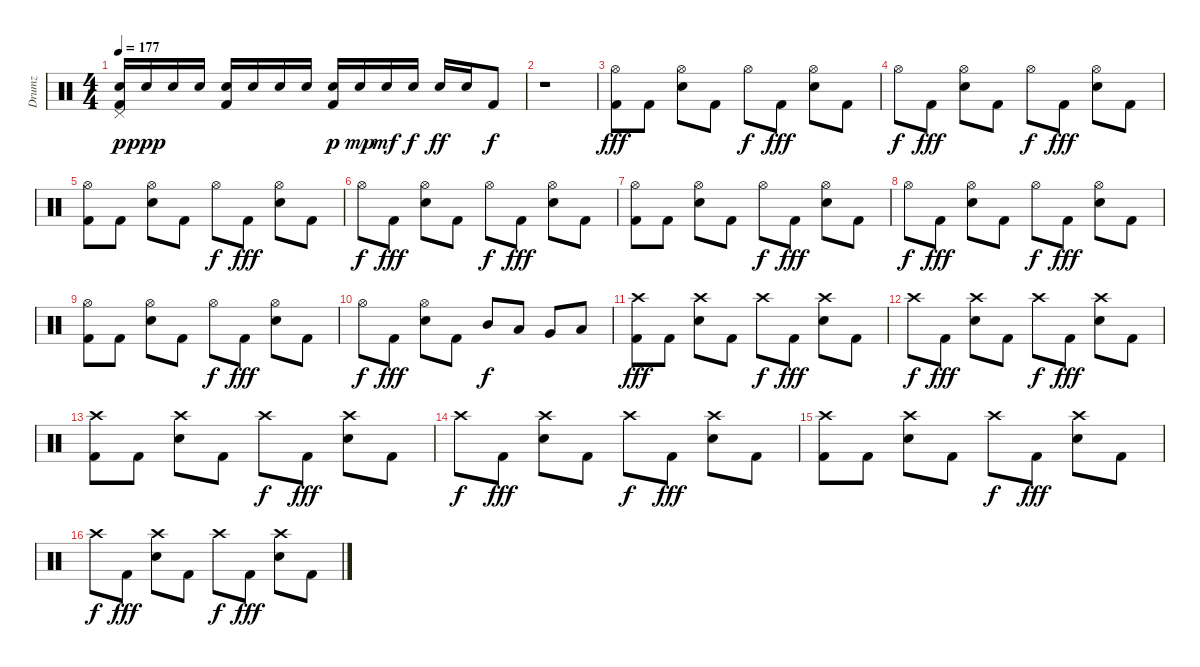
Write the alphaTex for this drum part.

\track ("Drumz" "Drumz") {instrument percussion}
\staff {score}
\articulation defaults
\ts (4 4)
\tempo 177
\clef neutral
\ks c
("Snare (hit) 2" "Pedal Hi-Hat (hit)" "Kick (hit) 2").16{dy p} "Snare (hit) 2".16{dy ppp} "Snare (hit) 2".16 "Snare (hit) 2".16 ("Snare (hit) 2" "Kick (hit) 2").16 "Snare (hit) 2".16 "Snare (hit) 2".16 "Snare (hit) 2".16 ("Snare (hit) 2" "Kick (hit) 2").16{dy p} "Snare (hit) 2".16{dy mp} "Snare (hit) 2".16{dy mf} "Snare (hit) 2".16{dy f} "Snare (hit) 2".16{dy ff} "Snare (hit) 2".16 "Kick (hit) 2".8{dy f} |
r.1 |
("Hi-Hat (open)" "Kick (hit) 2").8{dy fff} "Kick (hit) 2".8 ("Hi-Hat (open)" "Snare (hit) 2").8 "Kick (hit) 2".8 "Hi-Hat (open)".8{dy f} "Kick (hit) 2".8{dy fff} ("Hi-Hat (open)" "Snare (hit) 2").8 "Kick (hit) 2".8 |
"Hi-Hat (open)".8{dy f} "Kick (hit) 2".8{dy fff} ("Hi-Hat (open)" "Snare (hit) 2").8 "Kick (hit) 2".8 "Hi-Hat (open)".8{dy f} "Kick (hit) 2".8{dy fff} ("Hi-Hat (open)" "Snare (hit) 2").8 "Kick (hit) 2".8 |
("Hi-Hat (open)" "Kick (hit) 2").8 "Kick (hit) 2".8 ("Hi-Hat (open)" "Snare (hit) 2").8 "Kick (hit) 2".8 "Hi-Hat (open)".8{dy f} "Kick (hit) 2".8{dy fff} ("Hi-Hat (open)" "Snare (hit) 2").8 "Kick (hit) 2".8 |
"Hi-Hat (open)".8{dy f} "Kick (hit) 2".8{dy fff} ("Hi-Hat (open)" "Snare (hit) 2").8 "Kick (hit) 2".8 "Hi-Hat (open)".8{dy f} "Kick (hit) 2".8{dy fff} ("Hi-Hat (open)" "Snare (hit) 2").8 "Kick (hit) 2".8 |
("Hi-Hat (open)" "Kick (hit) 2").8 "Kick (hit) 2".8 ("Hi-Hat (open)" "Snare (hit) 2").8 "Kick (hit) 2".8 "Hi-Hat (open)".8{dy f} "Kick (hit) 2".8{dy fff} ("Hi-Hat (open)" "Snare (hit) 2").8 "Kick (hit) 2".8 |
"Hi-Hat (open)".8{dy f} "Kick (hit) 2".8{dy fff} ("Hi-Hat (open)" "Snare (hit) 2").8 "Kick (hit) 2".8 "Hi-Hat (open)".8{dy f} "Kick (hit) 2".8{dy fff} ("Hi-Hat (open)" "Snare (hit) 2").8 "Kick (hit) 2".8 |
("Hi-Hat (open)" "Kick (hit) 2").8 "Kick (hit) 2".8 ("Hi-Hat (open)" "Snare (hit) 2").8 "Kick (hit) 2".8 "Hi-Hat (open)".8{dy f} "Kick (hit) 2".8{dy fff} ("Hi-Hat (open)" "Snare (hit) 2").8 "Kick (hit) 2".8 |
"Hi-Hat (open)".8{dy f} "Kick (hit) 2".8{dy fff} ("Hi-Hat (open)" "Snare (hit) 2").8 "Kick (hit) 2".8 "Mid Tom (hit)".8{dy f} "Low Tom (hit)".8 "Very Low Tom (hit)".8 "Low Floor Tom (hit)".8 |
("Kick (hit) 2" "Crash high (hit)").8{dy fff} "Kick (hit) 2".8 ("Snare (hit) 2" "Crash high (hit)").8 "Kick (hit) 2".8 "Crash high (hit)".8{dy f} "Kick (hit) 2".8{dy fff} ("Snare (hit) 2" "Crash high (hit)").8 "Kick (hit) 2".8 |
"Crash high (hit)".8{dy f} "Kick (hit) 2".8{dy fff} ("Snare (hit) 2" "Crash high (hit)").8 "Kick (hit) 2".8 "Crash high (hit)".8{dy f} "Kick (hit) 2".8{dy fff} ("Snare (hit) 2" "Crash high (hit)").8 "Kick (hit) 2".8 |
("Kick (hit) 2" "Crash high (hit)").8 "Kick (hit) 2".8 ("Snare (hit) 2" "Crash high (hit)").8 "Kick (hit) 2".8 "Crash high (hit)".8{dy f} "Kick (hit) 2".8{dy fff} ("Snare (hit) 2" "Crash high (hit)").8 "Kick (hit) 2".8 |
"Crash high (hit)".8{dy f} "Kick (hit) 2".8{dy fff} ("Snare (hit) 2" "Crash high (hit)").8 "Kick (hit) 2".8 "Crash high (hit)".8{dy f} "Kick (hit) 2".8{dy fff} ("Snare (hit) 2" "Crash high (hit)").8 "Kick (hit) 2".8 |
("Kick (hit) 2" "Crash high (hit)").8 "Kick (hit) 2".8 ("Snare (hit) 2" "Crash high (hit)").8 "Kick (hit) 2".8 "Crash high (hit)".8{dy f} "Kick (hit) 2".8{dy fff} ("Snare (hit) 2" "Crash high (hit)").8 "Kick (hit) 2".8 |
"Crash high (hit)".8{dy f} "Kick (hit) 2".8{dy fff} ("Snare (hit) 2" "Crash high (hit)").8 "Kick (hit) 2".8 "Crash high (hit)".8{dy f} "Kick (hit) 2".8{dy fff} ("Snare (hit) 2" "Crash high (hit)").8 "Kick (hit) 2".8
